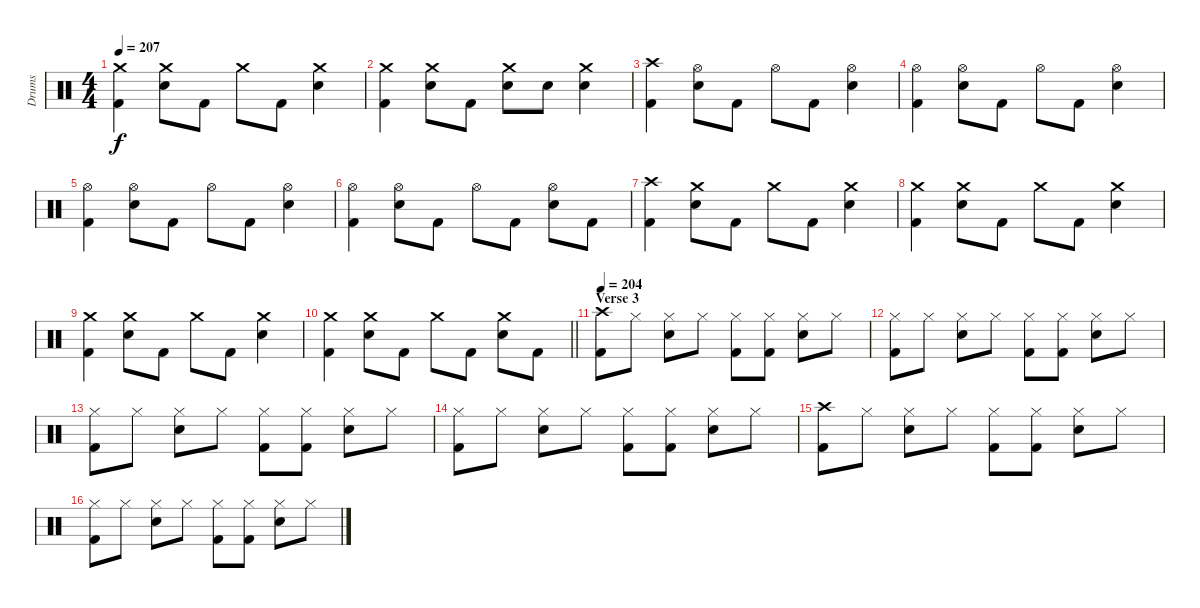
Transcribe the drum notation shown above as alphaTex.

\track ("Drums" "Drums") {instrument percussion}
\staff {score}
\articulation defaults
\ts (4 4)
\tempo 207
\clef neutral
\ks c
("Crash medium (hit)" "Kick (hit) 2").4{dy f} ("Crash medium (hit)" "Electric Snare (hit)").8 "Kick (hit) 2".8 "Crash medium (hit)".8 "Kick (hit) 2".8 ("Crash medium (hit)" "Electric Snare (hit)").4 |
("Crash medium (hit)" "Kick (hit) 2").4 ("Crash medium (hit)" "Electric Snare (hit)").8 "Kick (hit) 2".8 ("Crash medium (hit)" "Electric Snare (hit)").8 "Electric Snare (hit)".8 ("Crash medium (hit)" "Electric Snare (hit)").4 |
("Crash high (hit)" "Kick (hit) 2").4 ("Hi-Hat (open)" "Electric Snare (hit)").8 "Kick (hit) 2".8 "Hi-Hat (open)".8 "Kick (hit) 2".8 ("Hi-Hat (open)" "Electric Snare (hit)").4 |
("Hi-Hat (open)" "Kick (hit) 2").4 ("Hi-Hat (open)" "Electric Snare (hit)").8 "Kick (hit) 2".8 "Hi-Hat (open)".8 "Kick (hit) 2".8 ("Hi-Hat (open)" "Electric Snare (hit)").4 |
("Hi-Hat (open)" "Kick (hit) 2").4 ("Hi-Hat (open)" "Electric Snare (hit)").8 "Kick (hit) 2".8 "Hi-Hat (open)".8 "Kick (hit) 2".8 ("Hi-Hat (open)" "Electric Snare (hit)").4 |
("Hi-Hat (open)" "Kick (hit) 2").4 ("Hi-Hat (open)" "Electric Snare (hit)").8 "Kick (hit) 2".8 "Hi-Hat (open)".8 "Kick (hit) 2".8 ("Hi-Hat (open)" "Electric Snare (hit)").8 "Kick (hit) 2".8 |
("Crash high (hit)" "Kick (hit) 2").4 ("Crash medium (hit)" "Electric Snare (hit)").8 "Kick (hit) 2".8 "Crash medium (hit)".8 "Kick (hit) 2".8 ("Crash medium (hit)" "Electric Snare (hit)").4 |
("Crash medium (hit)" "Kick (hit) 2").4 ("Crash medium (hit)" "Electric Snare (hit)").8 "Kick (hit) 2".8 "Crash medium (hit)".8 "Kick (hit) 2".8 ("Crash medium (hit)" "Electric Snare (hit)").4 |
("Crash medium (hit)" "Kick (hit) 2").4 ("Crash medium (hit)" "Electric Snare (hit)").8 "Kick (hit) 2".8 "Crash medium (hit)".8 "Kick (hit) 2".8 ("Crash medium (hit)" "Electric Snare (hit)").4 |
\barLineRight lightlight
("Crash medium (hit)" "Kick (hit) 2").4 ("Crash medium (hit)" "Electric Snare (hit)").8 "Kick (hit) 2".8 "Crash medium (hit)".8 "Kick (hit) 2".8 ("Crash medium (hit)" "Electric Snare (hit)").8 "Kick (hit) 2".8 |
\section ("" "Verse 3")
\tempo 204
("Crash high (hit)" "Kick (hit) 2").8 "Hi-Hat (closed)".8 ("Hi-Hat (closed)" "Electric Snare (hit)").8 "Hi-Hat (closed)".8 ("Hi-Hat (closed)" "Kick (hit) 2").8 ("Hi-Hat (closed)" "Kick (hit) 2").8 ("Hi-Hat (closed)" "Electric Snare (hit)").8 "Hi-Hat (closed)".8 |
("Hi-Hat (closed)" "Kick (hit) 2").8 "Hi-Hat (closed)".8 ("Hi-Hat (closed)" "Electric Snare (hit)").8 "Hi-Hat (closed)".8 ("Hi-Hat (closed)" "Kick (hit) 2").8 ("Hi-Hat (closed)" "Kick (hit) 2").8 ("Hi-Hat (closed)" "Electric Snare (hit)").8 "Hi-Hat (closed)".8 |
("Hi-Hat (closed)" "Kick (hit) 2").8 "Hi-Hat (closed)".8 ("Hi-Hat (closed)" "Electric Snare (hit)").8 "Hi-Hat (closed)".8 ("Hi-Hat (closed)" "Kick (hit) 2").8 ("Hi-Hat (closed)" "Kick (hit) 2").8 ("Hi-Hat (closed)" "Electric Snare (hit)").8 "Hi-Hat (closed)".8 |
("Hi-Hat (closed)" "Kick (hit) 2").8 "Hi-Hat (closed)".8 ("Hi-Hat (closed)" "Electric Snare (hit)").8 "Hi-Hat (closed)".8 ("Hi-Hat (closed)" "Kick (hit) 2").8 ("Hi-Hat (closed)" "Kick (hit) 2").8 ("Hi-Hat (closed)" "Electric Snare (hit)").8 "Hi-Hat (closed)".8 |
("Crash high (hit)" "Kick (hit) 2").8 "Hi-Hat (closed)".8 ("Hi-Hat (closed)" "Electric Snare (hit)").8 "Hi-Hat (closed)".8 ("Hi-Hat (closed)" "Kick (hit) 2").8 ("Hi-Hat (closed)" "Kick (hit) 2").8 ("Hi-Hat (closed)" "Electric Snare (hit)").8 "Hi-Hat (closed)".8 |
("Hi-Hat (closed)" "Kick (hit) 2").8 "Hi-Hat (closed)".8 ("Hi-Hat (closed)" "Electric Snare (hit)").8 "Hi-Hat (closed)".8 ("Hi-Hat (closed)" "Kick (hit) 2").8 ("Hi-Hat (closed)" "Kick (hit) 2").8 ("Hi-Hat (closed)" "Electric Snare (hit)").8 "Hi-Hat (closed)".8
